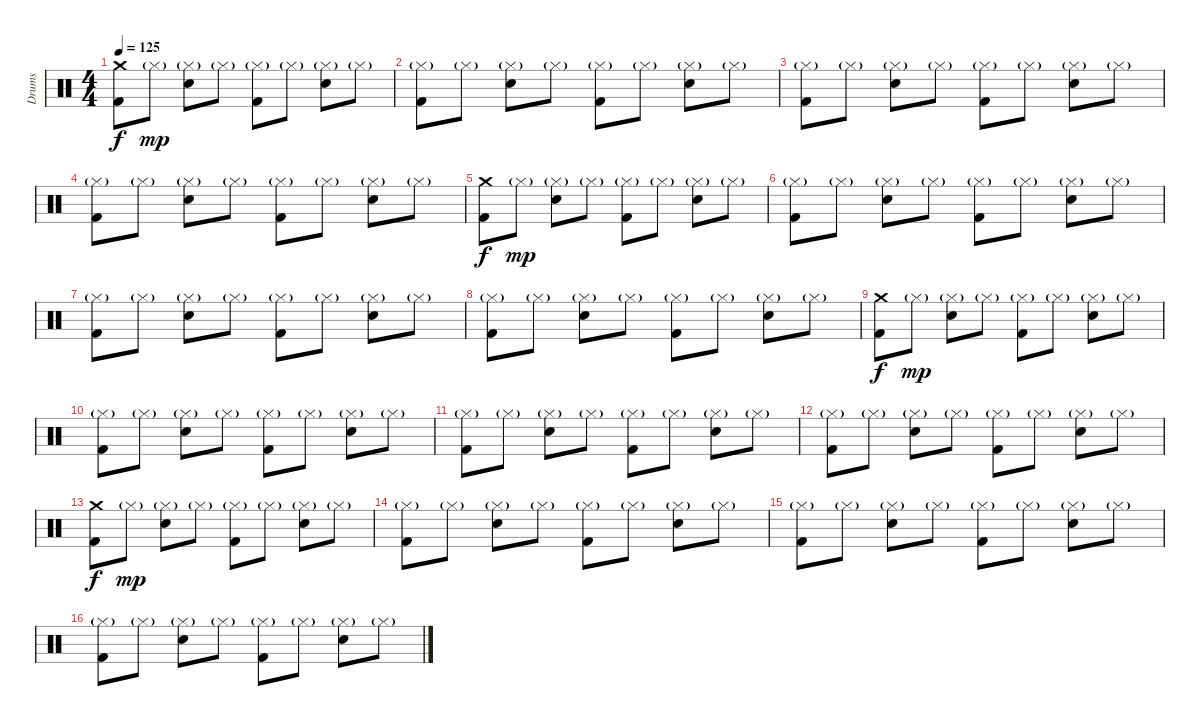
\track ("Drums" "Drums") {instrument percussion}
\staff {score}
\articulation defaults
\ts (4 4)
\tempo 125
\clef neutral
\ks c
("Crash medium (hit)" "Kick (hit) 2").8{dy f} "Hi-Hat (closed)"{g}.8{dy mp} ("Hi-Hat (closed)"{g} "Snare (hit) 2").8 "Hi-Hat (closed)"{g}.8 ("Hi-Hat (closed)"{g} "Kick (hit) 2").8 "Hi-Hat (closed)"{g}.8 ("Hi-Hat (closed)"{g} "Snare (hit) 2").8 "Hi-Hat (closed)"{g}.8 |
("Hi-Hat (closed)"{g} "Kick (hit) 2").8 "Hi-Hat (closed)"{g}.8 ("Hi-Hat (closed)"{g} "Snare (hit) 2").8 "Hi-Hat (closed)"{g}.8 ("Hi-Hat (closed)"{g} "Kick (hit) 2").8 "Hi-Hat (closed)"{g}.8 ("Hi-Hat (closed)"{g} "Snare (hit) 2").8 "Hi-Hat (closed)"{g}.8 |
("Hi-Hat (closed)"{g} "Kick (hit) 2").8 "Hi-Hat (closed)"{g}.8 ("Hi-Hat (closed)"{g} "Snare (hit) 2").8 "Hi-Hat (closed)"{g}.8 ("Hi-Hat (closed)"{g} "Kick (hit) 2").8 "Hi-Hat (closed)"{g}.8 ("Hi-Hat (closed)"{g} "Snare (hit) 2").8 "Hi-Hat (closed)"{g}.8 |
("Hi-Hat (closed)"{g} "Kick (hit) 2").8 "Hi-Hat (closed)"{g}.8 ("Hi-Hat (closed)"{g} "Snare (hit) 2").8 "Hi-Hat (closed)"{g}.8 ("Hi-Hat (closed)"{g} "Kick (hit) 2").8 "Hi-Hat (closed)"{g}.8 ("Hi-Hat (closed)"{g} "Snare (hit) 2").8 "Hi-Hat (closed)"{g}.8 |
("Crash medium (hit)" "Kick (hit) 2").8{dy f} "Hi-Hat (closed)"{g}.8{dy mp} ("Hi-Hat (closed)"{g} "Snare (hit) 2").8 "Hi-Hat (closed)"{g}.8 ("Hi-Hat (closed)"{g} "Kick (hit) 2").8 "Hi-Hat (closed)"{g}.8 ("Hi-Hat (closed)"{g} "Snare (hit) 2").8 "Hi-Hat (closed)"{g}.8 |
("Hi-Hat (closed)"{g} "Kick (hit) 2").8 "Hi-Hat (closed)"{g}.8 ("Hi-Hat (closed)"{g} "Snare (hit) 2").8 "Hi-Hat (closed)"{g}.8 ("Hi-Hat (closed)"{g} "Kick (hit) 2").8 "Hi-Hat (closed)"{g}.8 ("Hi-Hat (closed)"{g} "Snare (hit) 2").8 "Hi-Hat (closed)"{g}.8 |
("Hi-Hat (closed)"{g} "Kick (hit) 2").8 "Hi-Hat (closed)"{g}.8 ("Hi-Hat (closed)"{g} "Snare (hit) 2").8 "Hi-Hat (closed)"{g}.8 ("Hi-Hat (closed)"{g} "Kick (hit) 2").8 "Hi-Hat (closed)"{g}.8 ("Hi-Hat (closed)"{g} "Snare (hit) 2").8 "Hi-Hat (closed)"{g}.8 |
("Hi-Hat (closed)"{g} "Kick (hit) 2").8 "Hi-Hat (closed)"{g}.8 ("Hi-Hat (closed)"{g} "Snare (hit) 2").8 "Hi-Hat (closed)"{g}.8 ("Hi-Hat (closed)"{g} "Kick (hit) 2").8 "Hi-Hat (closed)"{g}.8 ("Hi-Hat (closed)"{g} "Snare (hit) 2").8 "Hi-Hat (closed)"{g}.8 |
("Crash medium (hit)" "Kick (hit) 2").8{dy f} "Hi-Hat (closed)"{g}.8{dy mp} ("Hi-Hat (closed)"{g} "Snare (hit) 2").8 "Hi-Hat (closed)"{g}.8 ("Hi-Hat (closed)"{g} "Kick (hit) 2").8 "Hi-Hat (closed)"{g}.8 ("Hi-Hat (closed)"{g} "Snare (hit) 2").8 "Hi-Hat (closed)"{g}.8 |
("Hi-Hat (closed)"{g} "Kick (hit) 2").8 "Hi-Hat (closed)"{g}.8 ("Hi-Hat (closed)"{g} "Snare (hit) 2").8 "Hi-Hat (closed)"{g}.8 ("Hi-Hat (closed)"{g} "Kick (hit) 2").8 "Hi-Hat (closed)"{g}.8 ("Hi-Hat (closed)"{g} "Snare (hit) 2").8 "Hi-Hat (closed)"{g}.8 |
("Hi-Hat (closed)"{g} "Kick (hit) 2").8 "Hi-Hat (closed)"{g}.8 ("Hi-Hat (closed)"{g} "Snare (hit) 2").8 "Hi-Hat (closed)"{g}.8 ("Hi-Hat (closed)"{g} "Kick (hit) 2").8 "Hi-Hat (closed)"{g}.8 ("Hi-Hat (closed)"{g} "Snare (hit) 2").8 "Hi-Hat (closed)"{g}.8 |
("Hi-Hat (closed)"{g} "Kick (hit) 2").8 "Hi-Hat (closed)"{g}.8 ("Hi-Hat (closed)"{g} "Snare (hit) 2").8 "Hi-Hat (closed)"{g}.8 ("Hi-Hat (closed)"{g} "Kick (hit) 2").8 "Hi-Hat (closed)"{g}.8 ("Hi-Hat (closed)"{g} "Snare (hit) 2").8 "Hi-Hat (closed)"{g}.8 |
("Crash medium (hit)" "Kick (hit) 2").8{dy f} "Hi-Hat (closed)"{g}.8{dy mp} ("Hi-Hat (closed)"{g} "Snare (hit) 2").8 "Hi-Hat (closed)"{g}.8 ("Hi-Hat (closed)"{g} "Kick (hit) 2").8 "Hi-Hat (closed)"{g}.8 ("Hi-Hat (closed)"{g} "Snare (hit) 2").8 "Hi-Hat (closed)"{g}.8 |
("Hi-Hat (closed)"{g} "Kick (hit) 2").8 "Hi-Hat (closed)"{g}.8 ("Hi-Hat (closed)"{g} "Snare (hit) 2").8 "Hi-Hat (closed)"{g}.8 ("Hi-Hat (closed)"{g} "Kick (hit) 2").8 "Hi-Hat (closed)"{g}.8 ("Hi-Hat (closed)"{g} "Snare (hit) 2").8 "Hi-Hat (closed)"{g}.8 |
("Hi-Hat (closed)"{g} "Kick (hit) 2").8 "Hi-Hat (closed)"{g}.8 ("Hi-Hat (closed)"{g} "Snare (hit) 2").8 "Hi-Hat (closed)"{g}.8 ("Hi-Hat (closed)"{g} "Kick (hit) 2").8 "Hi-Hat (closed)"{g}.8 ("Hi-Hat (closed)"{g} "Snare (hit) 2").8 "Hi-Hat (closed)"{g}.8 |
("Hi-Hat (closed)"{g} "Kick (hit) 2").8 "Hi-Hat (closed)"{g}.8 ("Hi-Hat (closed)"{g} "Snare (hit) 2").8 "Hi-Hat (closed)"{g}.8 ("Hi-Hat (closed)"{g} "Kick (hit) 2").8 "Hi-Hat (closed)"{g}.8 ("Hi-Hat (closed)"{g} "Snare (hit) 2").8 "Hi-Hat (closed)"{g}.8
